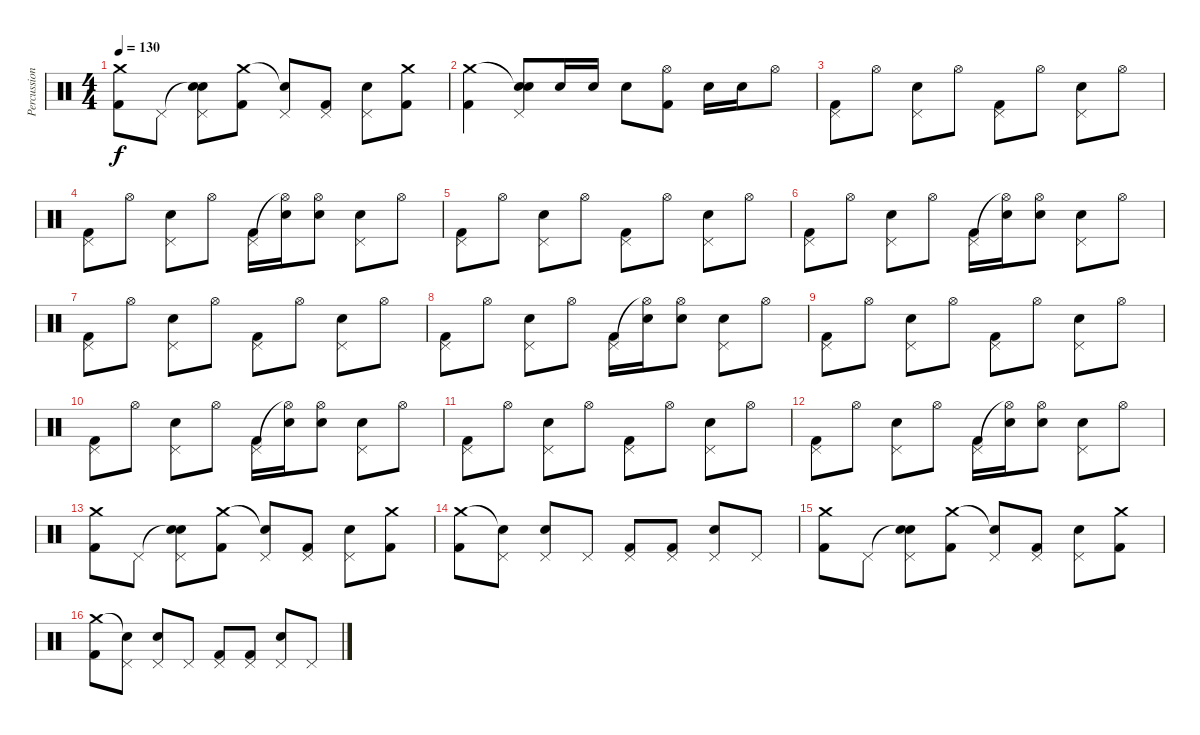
\track ("Percussion" "Percussion") {instrument percussion}
\staff {score}
\articulation defaults
\ts (4 4)
\tempo 130
\clef neutral
\ks c
("Crash medium (hit)" "Kick (hit) 2").8{dy f} "Pedal Hi-Hat (hit)".8 ("Snare (hit)"{t} "Pedal Hi-Hat (hit)" "Snare (hit) 2").8 ("Crash medium (hit)" "Kick (hit) 2").8 ("Snare (hit)"{t} "Pedal Hi-Hat (hit)").8 ("Pedal Hi-Hat (hit)" "Kick (hit) 2").8 ("Pedal Hi-Hat (hit)" "Snare (hit) 2").8 ("Crash medium (hit)" "Kick (hit) 2").8 |
("Crash medium (hit)" "Kick (hit) 2").4 ("Snare (hit)"{t} "Pedal Hi-Hat (hit)" "Snare (hit) 2").8 "Snare (hit) 2".16 "Snare (hit) 2".16 "Snare (hit) 2".8 ("Hi-Hat (open)" "Kick (hit) 2").8 "Snare (hit) 2".16 "Snare (hit) 2".16 "Hi-Hat (open)".8 |
("Pedal Hi-Hat (hit)" "Kick (hit) 2").8 "Hi-Hat (open)".8 ("Pedal Hi-Hat (hit)" "Snare (hit) 2").8 "Hi-Hat (open)".8 ("Pedal Hi-Hat (hit)" "Kick (hit) 2").8 "Hi-Hat (open)".8 ("Pedal Hi-Hat (hit)" "Snare (hit) 2").8 "Hi-Hat (open)".8 |
("Pedal Hi-Hat (hit)" "Kick (hit) 2").8 "Hi-Hat (open)".8 ("Pedal Hi-Hat (hit)" "Snare (hit) 2").8 "Hi-Hat (open)".8 ("Pedal Hi-Hat (hit)" "Kick (hit) 2").16 ("Hi-Hat (open)"{t} "Snare (hit) 2").16 ("Hi-Hat (open)" "Snare (hit) 2").8 ("Pedal Hi-Hat (hit)" "Snare (hit) 2").8 "Hi-Hat (open)".8 |
("Pedal Hi-Hat (hit)" "Kick (hit) 2").8 "Hi-Hat (open)".8 ("Pedal Hi-Hat (hit)" "Snare (hit) 2").8 "Hi-Hat (open)".8 ("Pedal Hi-Hat (hit)" "Kick (hit) 2").8 "Hi-Hat (open)".8 ("Pedal Hi-Hat (hit)" "Snare (hit) 2").8 "Hi-Hat (open)".8 |
("Pedal Hi-Hat (hit)" "Kick (hit) 2").8 "Hi-Hat (open)".8 ("Pedal Hi-Hat (hit)" "Snare (hit) 2").8 "Hi-Hat (open)".8 ("Pedal Hi-Hat (hit)" "Kick (hit) 2").16 ("Hi-Hat (open)"{t} "Snare (hit) 2").16 ("Hi-Hat (open)" "Snare (hit) 2").8 ("Pedal Hi-Hat (hit)" "Snare (hit) 2").8 "Hi-Hat (open)".8 |
("Pedal Hi-Hat (hit)" "Kick (hit) 2").8 "Hi-Hat (open)".8 ("Pedal Hi-Hat (hit)" "Snare (hit) 2").8 "Hi-Hat (open)".8 ("Pedal Hi-Hat (hit)" "Kick (hit) 2").8 "Hi-Hat (open)".8 ("Pedal Hi-Hat (hit)" "Snare (hit) 2").8 "Hi-Hat (open)".8 |
("Pedal Hi-Hat (hit)" "Kick (hit) 2").8 "Hi-Hat (open)".8 ("Pedal Hi-Hat (hit)" "Snare (hit) 2").8 "Hi-Hat (open)".8 ("Pedal Hi-Hat (hit)" "Kick (hit) 2").16 ("Hi-Hat (open)"{t} "Snare (hit) 2").16 ("Hi-Hat (open)" "Snare (hit) 2").8 ("Pedal Hi-Hat (hit)" "Snare (hit) 2").8 "Hi-Hat (open)".8 |
("Pedal Hi-Hat (hit)" "Kick (hit) 2").8 "Hi-Hat (open)".8 ("Pedal Hi-Hat (hit)" "Snare (hit) 2").8 "Hi-Hat (open)".8 ("Pedal Hi-Hat (hit)" "Kick (hit) 2").8 "Hi-Hat (open)".8 ("Pedal Hi-Hat (hit)" "Snare (hit) 2").8 "Hi-Hat (open)".8 |
("Pedal Hi-Hat (hit)" "Kick (hit) 2").8 "Hi-Hat (open)".8 ("Pedal Hi-Hat (hit)" "Snare (hit) 2").8 "Hi-Hat (open)".8 ("Pedal Hi-Hat (hit)" "Kick (hit) 2").16 ("Hi-Hat (open)"{t} "Snare (hit) 2").16 ("Hi-Hat (open)" "Snare (hit) 2").8 ("Pedal Hi-Hat (hit)" "Snare (hit) 2").8 "Hi-Hat (open)".8 |
("Pedal Hi-Hat (hit)" "Kick (hit) 2").8 "Hi-Hat (open)".8 ("Pedal Hi-Hat (hit)" "Snare (hit) 2").8 "Hi-Hat (open)".8 ("Pedal Hi-Hat (hit)" "Kick (hit) 2").8 "Hi-Hat (open)".8 ("Pedal Hi-Hat (hit)" "Snare (hit) 2").8 "Hi-Hat (open)".8 |
("Pedal Hi-Hat (hit)" "Kick (hit) 2").8 "Hi-Hat (open)".8 ("Pedal Hi-Hat (hit)" "Snare (hit) 2").8 "Hi-Hat (open)".8 ("Pedal Hi-Hat (hit)" "Kick (hit) 2").16 ("Hi-Hat (open)"{t} "Snare (hit) 2").16 ("Hi-Hat (open)" "Snare (hit) 2").8 ("Pedal Hi-Hat (hit)" "Snare (hit) 2").8 "Hi-Hat (open)".8 |
("Crash medium (hit)" "Kick (hit) 2").8 "Pedal Hi-Hat (hit)".8 ("Snare (hit)"{t} "Pedal Hi-Hat (hit)" "Snare (hit) 2").8 ("Crash medium (hit)" "Kick (hit) 2").8 ("Snare (hit)"{t} "Pedal Hi-Hat (hit)").8 ("Pedal Hi-Hat (hit)" "Kick (hit) 2").8 ("Pedal Hi-Hat (hit)" "Snare (hit) 2").8 ("Crash medium (hit)" "Kick (hit) 2").8 |
("Crash medium (hit)" "Kick (hit) 2").8 ("Snare (hit)"{t} "Pedal Hi-Hat (hit)").8 ("Pedal Hi-Hat (hit)" "Snare (hit) 2").8 "Pedal Hi-Hat (hit)".8 ("Pedal Hi-Hat (hit)" "Kick (hit) 2").8 ("Pedal Hi-Hat (hit)" "Kick (hit) 2").8 ("Pedal Hi-Hat (hit)" "Snare (hit) 2").8 "Pedal Hi-Hat (hit)".8 |
("Crash medium (hit)" "Kick (hit) 2").8 "Pedal Hi-Hat (hit)".8 ("Snare (hit)"{t} "Pedal Hi-Hat (hit)" "Snare (hit) 2").8 ("Crash medium (hit)" "Kick (hit) 2").8 ("Snare (hit)"{t} "Pedal Hi-Hat (hit)").8 ("Pedal Hi-Hat (hit)" "Kick (hit) 2").8 ("Pedal Hi-Hat (hit)" "Snare (hit) 2").8 ("Crash medium (hit)" "Kick (hit) 2").8 |
("Crash medium (hit)" "Kick (hit) 2").8 ("Snare (hit)"{t} "Pedal Hi-Hat (hit)").8 ("Pedal Hi-Hat (hit)" "Snare (hit) 2").8 "Pedal Hi-Hat (hit)".8 ("Pedal Hi-Hat (hit)" "Kick (hit) 2").8 ("Pedal Hi-Hat (hit)" "Kick (hit) 2").8 ("Pedal Hi-Hat (hit)" "Snare (hit) 2").8 "Pedal Hi-Hat (hit)".8
